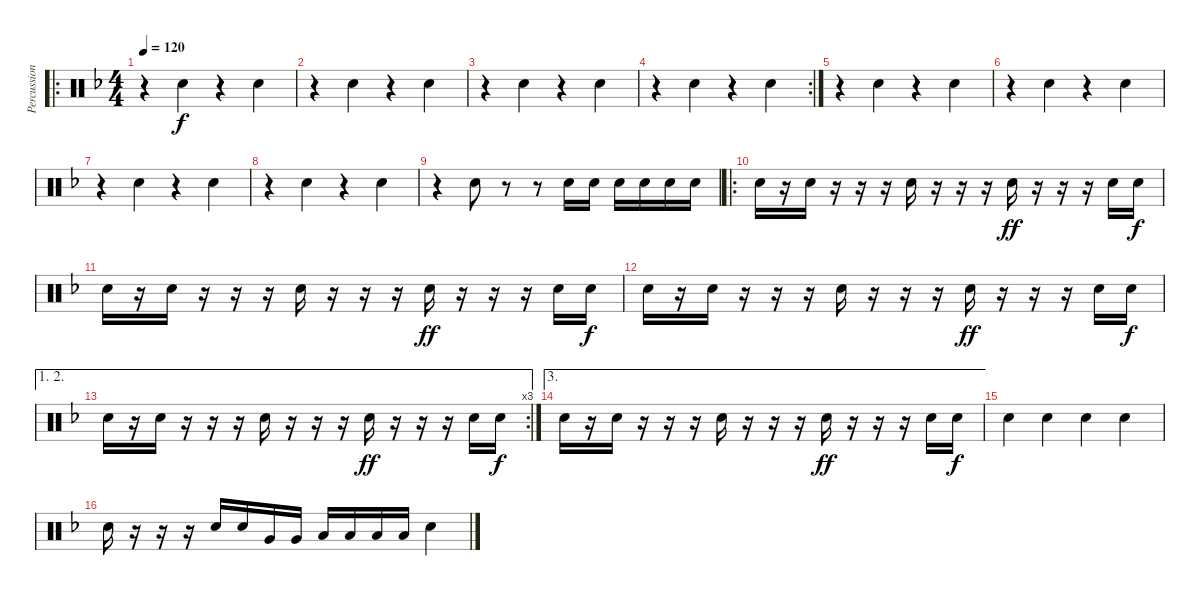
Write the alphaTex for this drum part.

\track ("Percussion" "Percussion") {instrument percussion}
\staff {score}
\articulation defaults
\ro
\ts (4 4)
\tempo 120
\clef neutral
\ks f
r.4{dy f} "Electric Snare (hit)".4 r.4 "Electric Snare (hit)".4 |
r.4 "Electric Snare (hit)".4 r.4 "Electric Snare (hit)".4 |
r.4 "Electric Snare (hit)".4 r.4 "Electric Snare (hit)".4 |
\rc 2
r.4 "Electric Snare (hit)".4 r.4 "Electric Snare (hit)".4 |
r.4 "Electric Snare (hit)".4 r.4 "Electric Snare (hit)".4 |
r.4 "Electric Snare (hit)".4 r.4 "Electric Snare (hit)".4 |
r.4 "Electric Snare (hit)".4 r.4 "Electric Snare (hit)".4 |
r.4 "Electric Snare (hit)".4 r.4 "Electric Snare (hit)".4 |
r.4 "Electric Snare (hit)".8 r.8 r.8 "Electric Snare (hit)".16 "Electric Snare (hit)".16 "Electric Snare (hit)".16 "Electric Snare (hit)".16 "Electric Snare (hit)".16 "Electric Snare (hit)".16 |
\ro "Electric Snare (hit)".16
r.16 "Electric Snare (hit)".16 r.16 r.16 r.16 "Electric Snare (hit)".16 r.16 r.16 r.16 "Electric Snare (hit)".16{dy ff} r.16 r.16 r.16 "Electric Snare (hit)".16 "Electric Snare (hit)".16{dy f} |
"Electric Snare (hit)".16 r.16 "Electric Snare (hit)".16 r.16 r.16 r.16 "Electric Snare (hit)".16 r.16 r.16 r.16 "Electric Snare (hit)".16{dy ff} r.16 r.16 r.16 "Electric Snare (hit)".16 "Electric Snare (hit)".16{dy f} |
"Electric Snare (hit)".16 r.16 "Electric Snare (hit)".16 r.16 r.16 r.16 "Electric Snare (hit)".16 r.16 r.16 r.16 "Electric Snare (hit)".16{dy ff} r.16 r.16 r.16 "Electric Snare (hit)".16 "Electric Snare (hit)".16{dy f} |
\ae (1 2)
\rc 3 "Electric Snare (hit)".16
r.16 "Electric Snare (hit)".16 r.16 r.16 r.16 "Electric Snare (hit)".16 r.16 r.16 r.16 "Electric Snare (hit)".16{dy ff} r.16 r.16 r.16 "Electric Snare (hit)".16 "Electric Snare (hit)".16{dy f} |
\ae 3 "Electric Snare (hit)".16
r.16 "Electric Snare (hit)".16 r.16 r.16 r.16 "Electric Snare (hit)".16 r.16 r.16 r.16 "Electric Snare (hit)".16{dy ff} r.16 r.16 r.16 "Electric Snare (hit)".16 "Electric Snare (hit)".16{dy f} |
"Electric Snare (hit)".4 "Electric Snare (hit)".4 "Electric Snare (hit)".4 "Electric Snare (hit)".4 |
"Electric Snare (hit)".16 r.16 r.16 r.16 "Electric Snare (hit)".16 "Electric Snare (hit)".16 "Very Low Tom (hit)".16 "Very Low Tom (hit)".16 "Low Floor Tom (hit)".16 "Low Floor Tom (hit)".16 "Low Floor Tom (hit)".16 "Low Floor Tom (hit)".16 "Electric Snare (hit)".4
